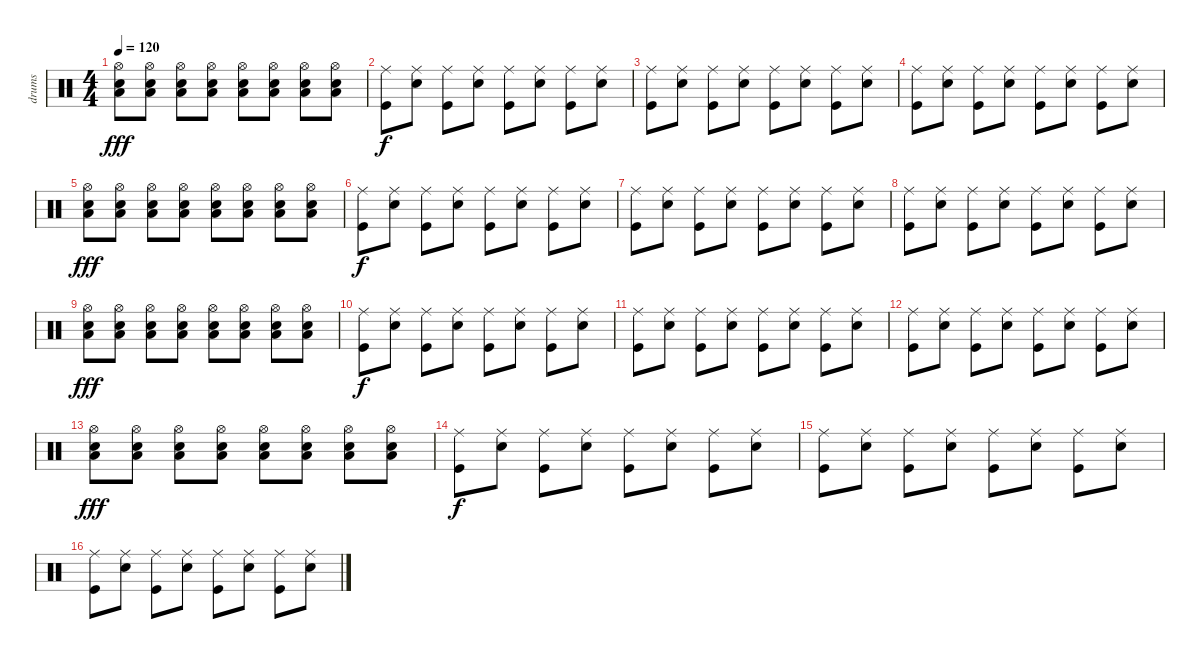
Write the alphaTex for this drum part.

\track ("drums" "drums") {instrument percussion}
\staff {score}
\articulation defaults
\ts (4 4)
\tempo 120
\clef neutral
\ks c
("Hi-Hat (open)" "Low Floor Tom (hit)" "Snare (hit) 2").8{dy fff} ("Hi-Hat (open)" "Low Floor Tom (hit)" "Snare (hit) 2").8 ("Hi-Hat (open)" "Low Floor Tom (hit)" "Snare (hit) 2").8 ("Hi-Hat (open)" "Low Floor Tom (hit)" "Snare (hit) 2").8 ("Hi-Hat (open)" "Low Floor Tom (hit)" "Snare (hit) 2").8 ("Hi-Hat (open)" "Low Floor Tom (hit)" "Snare (hit) 2").8 ("Hi-Hat (open)" "Low Floor Tom (hit)" "Snare (hit) 2").8 ("Hi-Hat (open)" "Low Floor Tom (hit)" "Snare (hit) 2").8 |
("Ride (middle)" "Kick (hit)").8{dy f} ("Ride (middle)" "Snare (hit) 2").8 ("Ride (middle)" "Kick (hit)").8 ("Ride (middle)" "Snare (hit) 2").8 ("Ride (middle)" "Kick (hit)").8 ("Ride (middle)" "Snare (hit) 2").8 ("Ride (middle)" "Kick (hit)").8 ("Ride (middle)" "Snare (hit) 2").8 |
("Ride (middle)" "Kick (hit)").8 ("Ride (middle)" "Snare (hit) 2").8 ("Ride (middle)" "Kick (hit)").8 ("Ride (middle)" "Snare (hit) 2").8 ("Ride (middle)" "Kick (hit)").8 ("Ride (middle)" "Snare (hit) 2").8 ("Ride (middle)" "Kick (hit)").8 ("Ride (middle)" "Snare (hit) 2").8 |
("Ride (middle)" "Kick (hit)").8 ("Ride (middle)" "Snare (hit) 2").8 ("Ride (middle)" "Kick (hit)").8 ("Ride (middle)" "Snare (hit) 2").8 ("Ride (middle)" "Kick (hit)").8 ("Ride (middle)" "Snare (hit) 2").8 ("Ride (middle)" "Kick (hit)").8 ("Ride (middle)" "Snare (hit) 2").8 |
("Hi-Hat (open)" "Low Floor Tom (hit)" "Snare (hit) 2").8{dy fff} ("Hi-Hat (open)" "Low Floor Tom (hit)" "Snare (hit) 2").8 ("Hi-Hat (open)" "Low Floor Tom (hit)" "Snare (hit) 2").8 ("Hi-Hat (open)" "Low Floor Tom (hit)" "Snare (hit) 2").8 ("Hi-Hat (open)" "Low Floor Tom (hit)" "Snare (hit) 2").8 ("Hi-Hat (open)" "Low Floor Tom (hit)" "Snare (hit) 2").8 ("Hi-Hat (open)" "Low Floor Tom (hit)" "Snare (hit) 2").8 ("Hi-Hat (open)" "Low Floor Tom (hit)" "Snare (hit) 2").8 |
("Ride (middle)" "Kick (hit)").8{dy f} ("Ride (middle)" "Snare (hit) 2").8 ("Ride (middle)" "Kick (hit)").8 ("Ride (middle)" "Snare (hit) 2").8 ("Ride (middle)" "Kick (hit)").8 ("Ride (middle)" "Snare (hit) 2").8 ("Ride (middle)" "Kick (hit)").8 ("Ride (middle)" "Snare (hit) 2").8 |
("Ride (middle)" "Kick (hit)").8 ("Ride (middle)" "Snare (hit) 2").8 ("Ride (middle)" "Kick (hit)").8 ("Ride (middle)" "Snare (hit) 2").8 ("Ride (middle)" "Kick (hit)").8 ("Ride (middle)" "Snare (hit) 2").8 ("Ride (middle)" "Kick (hit)").8 ("Ride (middle)" "Snare (hit) 2").8 |
("Ride (middle)" "Kick (hit)").8 ("Ride (middle)" "Snare (hit) 2").8 ("Ride (middle)" "Kick (hit)").8 ("Ride (middle)" "Snare (hit) 2").8 ("Ride (middle)" "Kick (hit)").8 ("Ride (middle)" "Snare (hit) 2").8 ("Ride (middle)" "Kick (hit)").8 ("Ride (middle)" "Snare (hit) 2").8 |
("Hi-Hat (open)" "Low Floor Tom (hit)" "Snare (hit) 2").8{dy fff} ("Hi-Hat (open)" "Low Floor Tom (hit)" "Snare (hit) 2").8 ("Hi-Hat (open)" "Low Floor Tom (hit)" "Snare (hit) 2").8 ("Hi-Hat (open)" "Low Floor Tom (hit)" "Snare (hit) 2").8 ("Hi-Hat (open)" "Low Floor Tom (hit)" "Snare (hit) 2").8 ("Hi-Hat (open)" "Low Floor Tom (hit)" "Snare (hit) 2").8 ("Hi-Hat (open)" "Low Floor Tom (hit)" "Snare (hit) 2").8 ("Hi-Hat (open)" "Low Floor Tom (hit)" "Snare (hit) 2").8 |
("Ride (middle)" "Kick (hit)").8{dy f} ("Ride (middle)" "Snare (hit) 2").8 ("Ride (middle)" "Kick (hit)").8 ("Ride (middle)" "Snare (hit) 2").8 ("Ride (middle)" "Kick (hit)").8 ("Ride (middle)" "Snare (hit) 2").8 ("Ride (middle)" "Kick (hit)").8 ("Ride (middle)" "Snare (hit) 2").8 |
("Ride (middle)" "Kick (hit)").8 ("Ride (middle)" "Snare (hit) 2").8 ("Ride (middle)" "Kick (hit)").8 ("Ride (middle)" "Snare (hit) 2").8 ("Ride (middle)" "Kick (hit)").8 ("Ride (middle)" "Snare (hit) 2").8 ("Ride (middle)" "Kick (hit)").8 ("Ride (middle)" "Snare (hit) 2").8 |
("Ride (middle)" "Kick (hit)").8 ("Ride (middle)" "Snare (hit) 2").8 ("Ride (middle)" "Kick (hit)").8 ("Ride (middle)" "Snare (hit) 2").8 ("Ride (middle)" "Kick (hit)").8 ("Ride (middle)" "Snare (hit) 2").8 ("Ride (middle)" "Kick (hit)").8 ("Ride (middle)" "Snare (hit) 2").8 |
("Hi-Hat (open)" "Low Floor Tom (hit)" "Snare (hit) 2").8{dy fff} ("Hi-Hat (open)" "Low Floor Tom (hit)" "Snare (hit) 2").8 ("Hi-Hat (open)" "Low Floor Tom (hit)" "Snare (hit) 2").8 ("Hi-Hat (open)" "Low Floor Tom (hit)" "Snare (hit) 2").8 ("Hi-Hat (open)" "Low Floor Tom (hit)" "Snare (hit) 2").8 ("Hi-Hat (open)" "Low Floor Tom (hit)" "Snare (hit) 2").8 ("Hi-Hat (open)" "Low Floor Tom (hit)" "Snare (hit) 2").8 ("Hi-Hat (open)" "Low Floor Tom (hit)" "Snare (hit) 2").8 |
("Ride (middle)" "Kick (hit)").8{dy f} ("Ride (middle)" "Snare (hit) 2").8 ("Ride (middle)" "Kick (hit)").8 ("Ride (middle)" "Snare (hit) 2").8 ("Ride (middle)" "Kick (hit)").8 ("Ride (middle)" "Snare (hit) 2").8 ("Ride (middle)" "Kick (hit)").8 ("Ride (middle)" "Snare (hit) 2").8 |
("Ride (middle)" "Kick (hit)").8 ("Ride (middle)" "Snare (hit) 2").8 ("Ride (middle)" "Kick (hit)").8 ("Ride (middle)" "Snare (hit) 2").8 ("Ride (middle)" "Kick (hit)").8 ("Ride (middle)" "Snare (hit) 2").8 ("Ride (middle)" "Kick (hit)").8 ("Ride (middle)" "Snare (hit) 2").8 |
("Ride (middle)" "Kick (hit)").8 ("Ride (middle)" "Snare (hit) 2").8 ("Ride (middle)" "Kick (hit)").8 ("Ride (middle)" "Snare (hit) 2").8 ("Ride (middle)" "Kick (hit)").8 ("Ride (middle)" "Snare (hit) 2").8 ("Ride (middle)" "Kick (hit)").8 ("Ride (middle)" "Snare (hit) 2").8
